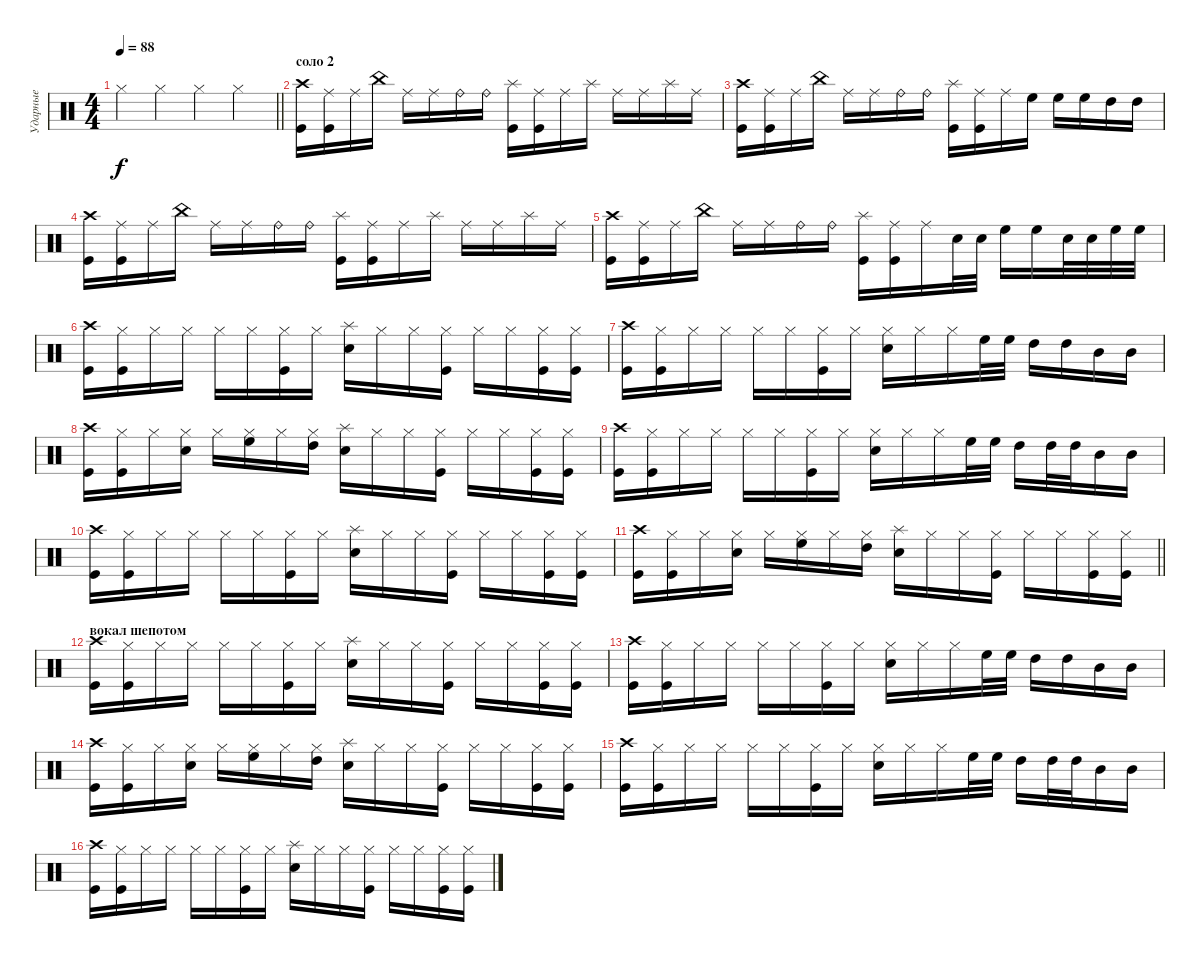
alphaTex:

\track ("Ударные" "Ударные") {instrument percussion}
\staff {score}
\articulation defaults
\ts (4 4)
\tempo 88
\clef neutral
\barLineRight lightlight
\ks c "Hi-Hat (closed)".4{dy f} "Hi-Hat (closed)".4 "Hi-Hat (closed)".4 "Hi-Hat (closed)".4
|
\section ("" "соло 2")
("Crash high (hit)" "Kick (hit)").16 ("Ride (middle)" "Kick (hit)").16 "Ride (middle)".16 "China (hit)".16 "Ride (middle)".16 "Ride (middle)".16 "Ride (bell)".16 "Ride (bell)".16 ("Splash (hit)" "Kick (hit)").16 ("Ride (middle)" "Kick (hit)").16 "Ride (middle)".16 "Splash (hit)".16 "Ride (middle)".16 "Ride (middle)".16 "Splash (hit)".16 "Ride (middle)".16 |
("Crash high (hit)" "Kick (hit)").16 ("Ride (middle)" "Kick (hit)").16 "Ride (middle)".16 "China (hit)".16 "Ride (middle)".16 "Ride (middle)".16 "Ride (bell)".16 "Ride (bell)".16 ("Splash (hit)" "Kick (hit)").16 ("Ride (middle)" "Kick (hit)").16 "Ride (middle)".16 "High Floor Tom (hit)".16 "High Floor Tom (hit)".16 "High Floor Tom (hit)".16 "High Tom (hit)".16 "High Tom (hit)".16 |
("Crash high (hit)" "Kick (hit)").16 ("Ride (middle)" "Kick (hit)").16 "Ride (middle)".16 "China (hit)".16 "Ride (middle)".16 "Ride (middle)".16 "Ride (bell)".16 "Ride (bell)".16 ("Splash (hit)" "Kick (hit)").16 ("Ride (middle)" "Kick (hit)").16 "Ride (middle)".16 "Splash (hit)".16 "Ride (middle)".16 "Ride (middle)".16 "Splash (hit)".16 "Ride (middle)".16 |
("Crash high (hit)" "Kick (hit)").16 ("Ride (middle)" "Kick (hit)").16 "Ride (middle)".16 "China (hit)".16 "Ride (middle)".16 "Ride (middle)".16 "Ride (bell)".16 "Ride (bell)".16 ("Splash (hit)" "Kick (hit)").16 ("Ride (middle)" "Kick (hit)").16 "Ride (middle)".16 "Snare (hit) 2".32 "Snare (hit) 2".32 "High Floor Tom (hit)".16 "High Floor Tom (hit)".16 "Snare (hit) 2".32 "Snare (hit) 2".32 "High Floor Tom (hit)".32 "High Floor Tom (hit)".32 |
("Kick (hit)" "Crash high (hit)").16 ("Kick (hit)" "Hi-Hat (closed)").16 "Hi-Hat (closed)".16 "Hi-Hat (closed)".16 "Hi-Hat (closed)".16 "Hi-Hat (closed)".16 ("Kick (hit)" "Hi-Hat (closed)").16 "Hi-Hat (closed)".16 ("Snare (hit) 2" "Splash (hit)").16 "Hi-Hat (closed)".16 "Hi-Hat (closed)".16 ("Kick (hit)" "Hi-Hat (closed)").16 "Hi-Hat (closed)".16 "Hi-Hat (closed)".16 ("Kick (hit)" "Hi-Hat (closed)").16 ("Kick (hit)" "Hi-Hat (closed)").16 |
("Kick (hit)" "Crash high (hit)").16 ("Kick (hit)" "Hi-Hat (closed)").16 "Hi-Hat (closed)".16 "Hi-Hat (closed)".16 "Hi-Hat (closed)".16 "Hi-Hat (closed)".16 ("Kick (hit)" "Hi-Hat (closed)").16 "Hi-Hat (closed)".16 ("Snare (hit) 2" "Hi-Hat (closed)").16 "Hi-Hat (closed)".16 "Hi-Hat (closed)".16 "High Floor Tom (hit)".32 "High Floor Tom (hit)".32 "High Tom (hit)".16 "High Tom (hit)".16 "Mid Tom (hit)".16 "Mid Tom (hit)".16 |
("Kick (hit)" "Crash high (hit)").16 ("Kick (hit)" "Hi-Hat (closed)").16 "Hi-Hat (closed)".16 ("Hi-Hat (closed)" "Snare (hit) 2").16 "Hi-Hat (closed)".16 ("Hi-Hat (closed)" "High Floor Tom (hit)").16 "Hi-Hat (closed)".16 ("Hi-Hat (closed)" "High Tom (hit)").16 ("Snare (hit) 2" "Splash (hit)").16 "Hi-Hat (closed)".16 "Hi-Hat (closed)".16 ("Kick (hit)" "Hi-Hat (closed)").16 "Hi-Hat (closed)".16 "Hi-Hat (closed)".16 ("Kick (hit)" "Hi-Hat (closed)").16 ("Kick (hit)" "Hi-Hat (closed)").16 |
("Kick (hit)" "Crash high (hit)").16 ("Kick (hit)" "Hi-Hat (closed)").16 "Hi-Hat (closed)".16 "Hi-Hat (closed)".16 "Hi-Hat (closed)".16 "Hi-Hat (closed)".16 ("Kick (hit)" "Hi-Hat (closed)").16 "Hi-Hat (closed)".16 ("Snare (hit) 2" "Hi-Hat (closed)").16 "Hi-Hat (closed)".16 "Hi-Hat (closed)".16 "High Floor Tom (hit)".32 "High Floor Tom (hit)".32 "High Tom (hit)".16 "High Tom (hit)".32 "High Tom (hit)".32 "Mid Tom (hit)".16 "Mid Tom (hit)".16 |
("Kick (hit)" "Crash high (hit)").16 ("Kick (hit)" "Hi-Hat (closed)").16 "Hi-Hat (closed)".16 "Hi-Hat (closed)".16 "Hi-Hat (closed)".16 "Hi-Hat (closed)".16 ("Kick (hit)" "Hi-Hat (closed)").16 "Hi-Hat (closed)".16 ("Snare (hit) 2" "Splash (hit)").16 "Hi-Hat (closed)".16 "Hi-Hat (closed)".16 ("Kick (hit)" "Hi-Hat (closed)").16 "Hi-Hat (closed)".16 "Hi-Hat (closed)".16 ("Kick (hit)" "Hi-Hat (closed)").16 ("Kick (hit)" "Hi-Hat (closed)").16 |
\barLineRight lightlight
("Kick (hit)" "Crash high (hit)").16 ("Kick (hit)" "Hi-Hat (closed)").16 "Hi-Hat (closed)".16 ("Hi-Hat (closed)" "Snare (hit) 2").16 "Hi-Hat (closed)".16 ("Hi-Hat (closed)" "High Floor Tom (hit)").16 "Hi-Hat (closed)".16 ("Hi-Hat (closed)" "High Tom (hit)").16 ("Snare (hit) 2" "Splash (hit)").16 "Hi-Hat (closed)".16 "Hi-Hat (closed)".16 ("Kick (hit)" "Hi-Hat (closed)").16 "Hi-Hat (closed)".16 "Hi-Hat (closed)".16 ("Kick (hit)" "Hi-Hat (closed)").16 ("Kick (hit)" "Hi-Hat (closed)").16 |
\section ("" "вокал шепотом")
("Kick (hit)" "Crash high (hit)").16 ("Kick (hit)" "Hi-Hat (closed)").16 "Hi-Hat (closed)".16 "Hi-Hat (closed)".16 "Hi-Hat (closed)".16 "Hi-Hat (closed)".16 ("Kick (hit)" "Hi-Hat (closed)").16 "Hi-Hat (closed)".16 ("Snare (hit) 2" "Splash (hit)").16 "Hi-Hat (closed)".16 "Hi-Hat (closed)".16 ("Kick (hit)" "Hi-Hat (closed)").16 "Hi-Hat (closed)".16 "Hi-Hat (closed)".16 ("Kick (hit)" "Hi-Hat (closed)").16 ("Kick (hit)" "Hi-Hat (closed)").16 |
("Kick (hit)" "Crash high (hit)").16 ("Kick (hit)" "Hi-Hat (closed)").16 "Hi-Hat (closed)".16 "Hi-Hat (closed)".16 "Hi-Hat (closed)".16 "Hi-Hat (closed)".16 ("Kick (hit)" "Hi-Hat (closed)").16 "Hi-Hat (closed)".16 ("Snare (hit) 2" "Hi-Hat (closed)").16 "Hi-Hat (closed)".16 "Hi-Hat (closed)".16 "High Floor Tom (hit)".32 "High Floor Tom (hit)".32 "High Tom (hit)".16 "High Tom (hit)".16 "Mid Tom (hit)".16 "Mid Tom (hit)".16 |
("Kick (hit)" "Crash high (hit)").16 ("Kick (hit)" "Hi-Hat (closed)").16 "Hi-Hat (closed)".16 ("Hi-Hat (closed)" "Snare (hit) 2").16 "Hi-Hat (closed)".16 ("Hi-Hat (closed)" "High Floor Tom (hit)").16 "Hi-Hat (closed)".16 ("Hi-Hat (closed)" "High Tom (hit)").16 ("Snare (hit) 2" "Splash (hit)").16 "Hi-Hat (closed)".16 "Hi-Hat (closed)".16 ("Kick (hit)" "Hi-Hat (closed)").16 "Hi-Hat (closed)".16 "Hi-Hat (closed)".16 ("Kick (hit)" "Hi-Hat (closed)").16 ("Kick (hit)" "Hi-Hat (closed)").16 |
("Kick (hit)" "Crash high (hit)").16 ("Kick (hit)" "Hi-Hat (closed)").16 "Hi-Hat (closed)".16 "Hi-Hat (closed)".16 "Hi-Hat (closed)".16 "Hi-Hat (closed)".16 ("Kick (hit)" "Hi-Hat (closed)").16 "Hi-Hat (closed)".16 ("Snare (hit) 2" "Hi-Hat (closed)").16 "Hi-Hat (closed)".16 "Hi-Hat (closed)".16 "High Floor Tom (hit)".32 "High Floor Tom (hit)".32 "High Tom (hit)".16 "High Tom (hit)".32 "High Tom (hit)".32 "Mid Tom (hit)".16 "Mid Tom (hit)".16 |
("Kick (hit)" "Crash high (hit)").16 ("Kick (hit)" "Hi-Hat (closed)").16 "Hi-Hat (closed)".16 "Hi-Hat (closed)".16 "Hi-Hat (closed)".16 "Hi-Hat (closed)".16 ("Kick (hit)" "Hi-Hat (closed)").16 "Hi-Hat (closed)".16 ("Snare (hit) 2" "Splash (hit)").16 "Hi-Hat (closed)".16 "Hi-Hat (closed)".16 ("Kick (hit)" "Hi-Hat (closed)").16 "Hi-Hat (closed)".16 "Hi-Hat (closed)".16 ("Kick (hit)" "Hi-Hat (closed)").16 ("Kick (hit)" "Hi-Hat (closed)").16
